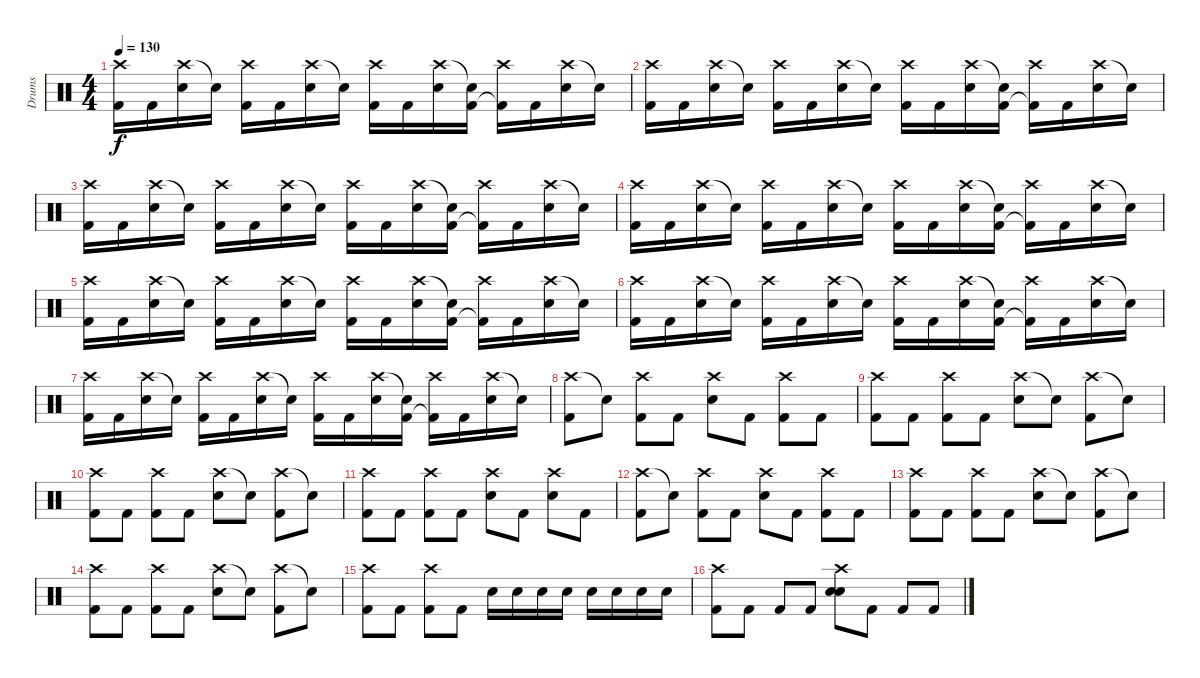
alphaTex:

\track ("Drums" "Drums") {instrument percussion}
\staff {score}
\articulation defaults
\ts (4 4)
\tempo 130
\clef neutral
\ks c
("Crash high (hit)" "Kick (hit) 2").16{dy f} "Kick (hit) 2".16 ("Crash high (hit)" "Electric Snare (hit)").16 "Snare (hit)"{t}.16 ("Crash high (hit)" "Kick (hit) 2").16 "Kick (hit) 2".16 ("Crash high (hit)" "Electric Snare (hit)").16 "Snare (hit)"{t}.16 ("Crash high (hit)" "Kick (hit) 2").16 "Kick (hit) 2".16 ("Crash high (hit)" "Electric Snare (hit)").16 ("Snare (hit)"{t} "Kick (hit) 2").16 ("Crash high (hit)" "Kick (hit) 2"{t}).16 "Kick (hit) 2".16 ("Crash high (hit)" "Electric Snare (hit)").16 "Snare (hit)"{t}.16 |
("Crash high (hit)" "Kick (hit) 2").16 "Kick (hit) 2".16 ("Crash high (hit)" "Electric Snare (hit)").16 "Snare (hit)"{t}.16 ("Crash high (hit)" "Kick (hit) 2").16 "Kick (hit) 2".16 ("Crash high (hit)" "Electric Snare (hit)").16 "Snare (hit)"{t}.16 ("Crash high (hit)" "Kick (hit) 2").16 "Kick (hit) 2".16 ("Crash high (hit)" "Electric Snare (hit)").16 ("Snare (hit)"{t} "Kick (hit) 2").16 ("Crash high (hit)" "Kick (hit) 2"{t}).16 "Kick (hit) 2".16 ("Crash high (hit)" "Electric Snare (hit)").16 "Snare (hit)"{t}.16 |
("Crash high (hit)" "Kick (hit) 2").16 "Kick (hit) 2".16 ("Crash high (hit)" "Electric Snare (hit)").16 "Snare (hit)"{t}.16 ("Crash high (hit)" "Kick (hit) 2").16 "Kick (hit) 2".16 ("Crash high (hit)" "Electric Snare (hit)").16 "Snare (hit)"{t}.16 ("Crash high (hit)" "Kick (hit) 2").16 "Kick (hit) 2".16 ("Crash high (hit)" "Electric Snare (hit)").16 ("Snare (hit)"{t} "Kick (hit) 2").16 ("Crash high (hit)" "Kick (hit) 2"{t}).16 "Kick (hit) 2".16 ("Crash high (hit)" "Electric Snare (hit)").16 "Snare (hit)"{t}.16 |
("Crash high (hit)" "Kick (hit) 2").16 "Kick (hit) 2".16 ("Crash high (hit)" "Electric Snare (hit)").16 "Snare (hit)"{t}.16 ("Crash high (hit)" "Kick (hit) 2").16 "Kick (hit) 2".16 ("Crash high (hit)" "Electric Snare (hit)").16 "Snare (hit)"{t}.16 ("Crash high (hit)" "Kick (hit) 2").16 "Kick (hit) 2".16 ("Crash high (hit)" "Electric Snare (hit)").16 ("Snare (hit)"{t} "Kick (hit) 2").16 ("Crash high (hit)" "Kick (hit) 2"{t}).16 "Kick (hit) 2".16 ("Crash high (hit)" "Electric Snare (hit)").16 "Snare (hit)"{t}.16 |
("Crash high (hit)" "Kick (hit) 2").16 "Kick (hit) 2".16 ("Crash high (hit)" "Electric Snare (hit)").16 "Snare (hit)"{t}.16 ("Crash high (hit)" "Kick (hit) 2").16 "Kick (hit) 2".16 ("Crash high (hit)" "Electric Snare (hit)").16 "Snare (hit)"{t}.16 ("Crash high (hit)" "Kick (hit) 2").16 "Kick (hit) 2".16 ("Crash high (hit)" "Electric Snare (hit)").16 ("Snare (hit)"{t} "Kick (hit) 2").16 ("Crash high (hit)" "Kick (hit) 2"{t}).16 "Kick (hit) 2".16 ("Crash high (hit)" "Electric Snare (hit)").16 "Snare (hit)"{t}.16 |
("Crash high (hit)" "Kick (hit) 2").16 "Kick (hit) 2".16 ("Crash high (hit)" "Electric Snare (hit)").16 "Snare (hit)"{t}.16 ("Crash high (hit)" "Kick (hit) 2").16 "Kick (hit) 2".16 ("Crash high (hit)" "Electric Snare (hit)").16 "Snare (hit)"{t}.16 ("Crash high (hit)" "Kick (hit) 2").16 "Kick (hit) 2".16 ("Crash high (hit)" "Electric Snare (hit)").16 ("Snare (hit)"{t} "Kick (hit) 2").16 ("Crash high (hit)" "Kick (hit) 2"{t}).16 "Kick (hit) 2".16 ("Crash high (hit)" "Electric Snare (hit)").16 "Snare (hit)"{t}.16 |
("Crash high (hit)" "Kick (hit) 2").16 "Kick (hit) 2".16 ("Crash high (hit)" "Electric Snare (hit)").16 "Snare (hit)"{t}.16 ("Crash high (hit)" "Kick (hit) 2").16 "Kick (hit) 2".16 ("Crash high (hit)" "Electric Snare (hit)").16 "Snare (hit)"{t}.16 ("Crash high (hit)" "Kick (hit) 2").16 "Kick (hit) 2".16 ("Crash high (hit)" "Electric Snare (hit)").16 ("Snare (hit)"{t} "Kick (hit) 2").16 ("Crash high (hit)" "Kick (hit) 2"{t}).16 "Kick (hit) 2".16 ("Crash high (hit)" "Electric Snare (hit)").16 "Snare (hit)"{t}.16 |
("Crash high (hit)" "Kick (hit) 2").8 "Snare (hit)"{t}.8 ("Crash high (hit)" "Kick (hit) 2").8 "Kick (hit) 2".8 ("Crash high (hit)" "Electric Snare (hit)").8 "Kick (hit) 2".8 ("Crash high (hit)" "Kick (hit) 2").8 "Kick (hit) 2".8 |
("Crash high (hit)" "Kick (hit) 2").8 "Kick (hit) 2".8 ("Crash high (hit)" "Kick (hit) 2").8 "Kick (hit) 2".8 ("Crash high (hit)" "Electric Snare (hit)").8 "Snare (hit)"{t}.8 ("Crash high (hit)" "Kick (hit) 2").8 "Snare (hit)"{t}.8 |
("Crash high (hit)" "Kick (hit) 2").8 "Kick (hit) 2".8 ("Crash high (hit)" "Kick (hit) 2").8 "Kick (hit) 2".8 ("Crash high (hit)" "Electric Snare (hit)").8 "Snare (hit)"{t}.8 ("Crash high (hit)" "Kick (hit) 2").8 "Snare (hit)"{t}.8 |
("Crash high (hit)" "Kick (hit) 2").8 "Kick (hit) 2".8 ("Crash high (hit)" "Kick (hit) 2").8 "Kick (hit) 2".8 ("Crash high (hit)" "Electric Snare (hit)").8 "Kick (hit) 2".8 ("Crash high (hit)" "Electric Snare (hit)").8 "Kick (hit) 2".8 |
("Crash high (hit)" "Kick (hit) 2").8 "Snare (hit)"{t}.8 ("Crash high (hit)" "Kick (hit) 2").8 "Kick (hit) 2".8 ("Crash high (hit)" "Electric Snare (hit)").8 "Kick (hit) 2".8 ("Crash high (hit)" "Kick (hit) 2").8 "Kick (hit) 2".8 |
("Crash high (hit)" "Kick (hit) 2").8 "Kick (hit) 2".8 ("Crash high (hit)" "Kick (hit) 2").8 "Kick (hit) 2".8 ("Crash high (hit)" "Electric Snare (hit)").8 "Snare (hit)"{t}.8 ("Crash high (hit)" "Kick (hit) 2").8 "Snare (hit)"{t}.8 |
("Crash high (hit)" "Kick (hit) 2").8 "Kick (hit) 2".8 ("Crash high (hit)" "Kick (hit) 2").8 "Kick (hit) 2".8 ("Crash high (hit)" "Electric Snare (hit)").8 "Snare (hit)"{t}.8 ("Crash high (hit)" "Kick (hit) 2").8 "Snare (hit)"{t}.8 |
("Crash high (hit)" "Kick (hit) 2").8 "Kick (hit) 2".8 ("Crash high (hit)" "Kick (hit) 2").8 "Kick (hit) 2".8 "Electric Snare (hit)".16 "Electric Snare (hit)".16 "Electric Snare (hit)".16 "Electric Snare (hit)".16 "Electric Snare (hit)".16 "Electric Snare (hit)".16 "Electric Snare (hit)".16 "Electric Snare (hit)".16 |
("Crash high (hit)" "Kick (hit) 2").8 "Kick (hit) 2".8 "Kick (hit) 2".8 "Kick (hit) 2".8 ("Crash high (hit)" "Electric Snare (hit)" "Snare (hit)").8 "Kick (hit) 2".8 "Kick (hit) 2".8 "Kick (hit) 2".8
